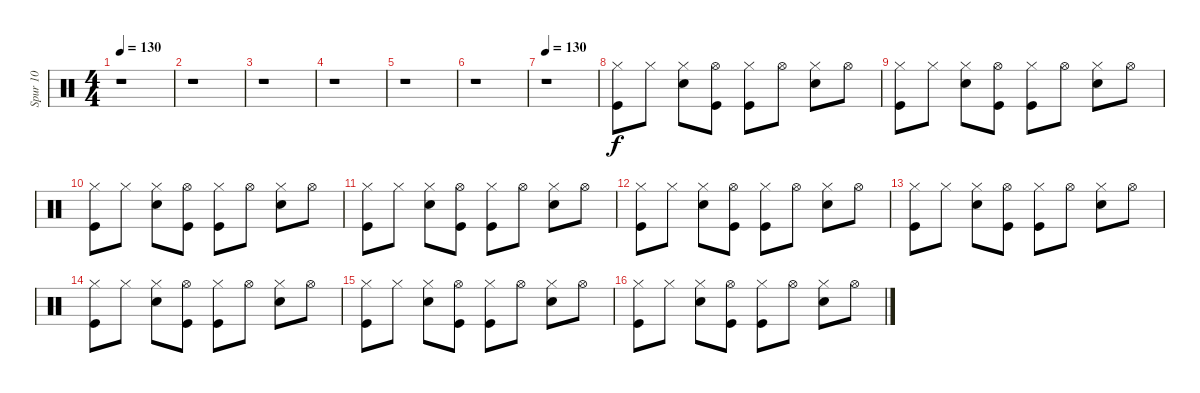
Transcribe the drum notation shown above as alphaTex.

\track ("Spur 10" "Spur 10") {instrument percussion}
\staff {score}
\articulation defaults
\ts (4 4)
\tempo 130
\clef neutral
\ks c
r.1{dy f} |
r.1 |
r.1 |
r.1 |
r.1 |
r.1 |
\tempo 130
r.1 |
("Kick (hit)" "Hi-Hat (closed)").8 "Hi-Hat (closed)".8 ("Snare (hit) 2" "Hi-Hat (closed)").8 ("Kick (hit)" "Hi-Hat (open)").8 ("Kick (hit)" "Hi-Hat (closed)").8 "Hi-Hat (open)".8 ("Snare (hit) 2" "Hi-Hat (closed)").8 "Hi-Hat (open)".8 |
("Kick (hit)" "Hi-Hat (closed)").8 "Hi-Hat (closed)".8 ("Snare (hit) 2" "Hi-Hat (closed)").8 ("Kick (hit)" "Hi-Hat (open)").8 ("Kick (hit)" "Hi-Hat (closed)").8 "Hi-Hat (open)".8 ("Snare (hit) 2" "Hi-Hat (closed)").8 "Hi-Hat (open)".8 |
("Kick (hit)" "Hi-Hat (closed)").8 "Hi-Hat (closed)".8 ("Snare (hit) 2" "Hi-Hat (closed)").8 ("Kick (hit)" "Hi-Hat (open)").8 ("Kick (hit)" "Hi-Hat (closed)").8 "Hi-Hat (open)".8 ("Snare (hit) 2" "Hi-Hat (closed)").8 "Hi-Hat (open)".8 |
("Kick (hit)" "Hi-Hat (closed)").8 "Hi-Hat (closed)".8 ("Snare (hit) 2" "Hi-Hat (closed)").8 ("Kick (hit)" "Hi-Hat (open)").8 ("Kick (hit)" "Hi-Hat (closed)").8 "Hi-Hat (open)".8 ("Snare (hit) 2" "Hi-Hat (closed)").8 "Hi-Hat (open)".8 |
("Kick (hit)" "Hi-Hat (closed)").8 "Hi-Hat (closed)".8 ("Snare (hit) 2" "Hi-Hat (closed)").8 ("Kick (hit)" "Hi-Hat (open)").8 ("Kick (hit)" "Hi-Hat (closed)").8 "Hi-Hat (open)".8 ("Snare (hit) 2" "Hi-Hat (closed)").8 "Hi-Hat (open)".8 |
("Kick (hit)" "Hi-Hat (closed)").8 "Hi-Hat (closed)".8 ("Snare (hit) 2" "Hi-Hat (closed)").8 ("Kick (hit)" "Hi-Hat (open)").8 ("Kick (hit)" "Hi-Hat (closed)").8 "Hi-Hat (open)".8 ("Snare (hit) 2" "Hi-Hat (closed)").8 "Hi-Hat (open)".8 |
("Kick (hit)" "Hi-Hat (closed)").8 "Hi-Hat (closed)".8 ("Snare (hit) 2" "Hi-Hat (closed)").8 ("Kick (hit)" "Hi-Hat (open)").8 ("Kick (hit)" "Hi-Hat (closed)").8 "Hi-Hat (open)".8 ("Snare (hit) 2" "Hi-Hat (closed)").8 "Hi-Hat (open)".8 |
("Kick (hit)" "Hi-Hat (closed)").8 "Hi-Hat (closed)".8 ("Snare (hit) 2" "Hi-Hat (closed)").8 ("Kick (hit)" "Hi-Hat (open)").8 ("Kick (hit)" "Hi-Hat (closed)").8 "Hi-Hat (open)".8 ("Snare (hit) 2" "Hi-Hat (closed)").8 "Hi-Hat (open)".8 |
("Kick (hit)" "Hi-Hat (closed)").8 "Hi-Hat (closed)".8 ("Snare (hit) 2" "Hi-Hat (closed)").8 ("Kick (hit)" "Hi-Hat (open)").8 ("Kick (hit)" "Hi-Hat (closed)").8 "Hi-Hat (open)".8 ("Snare (hit) 2" "Hi-Hat (closed)").8 "Hi-Hat (open)".8
